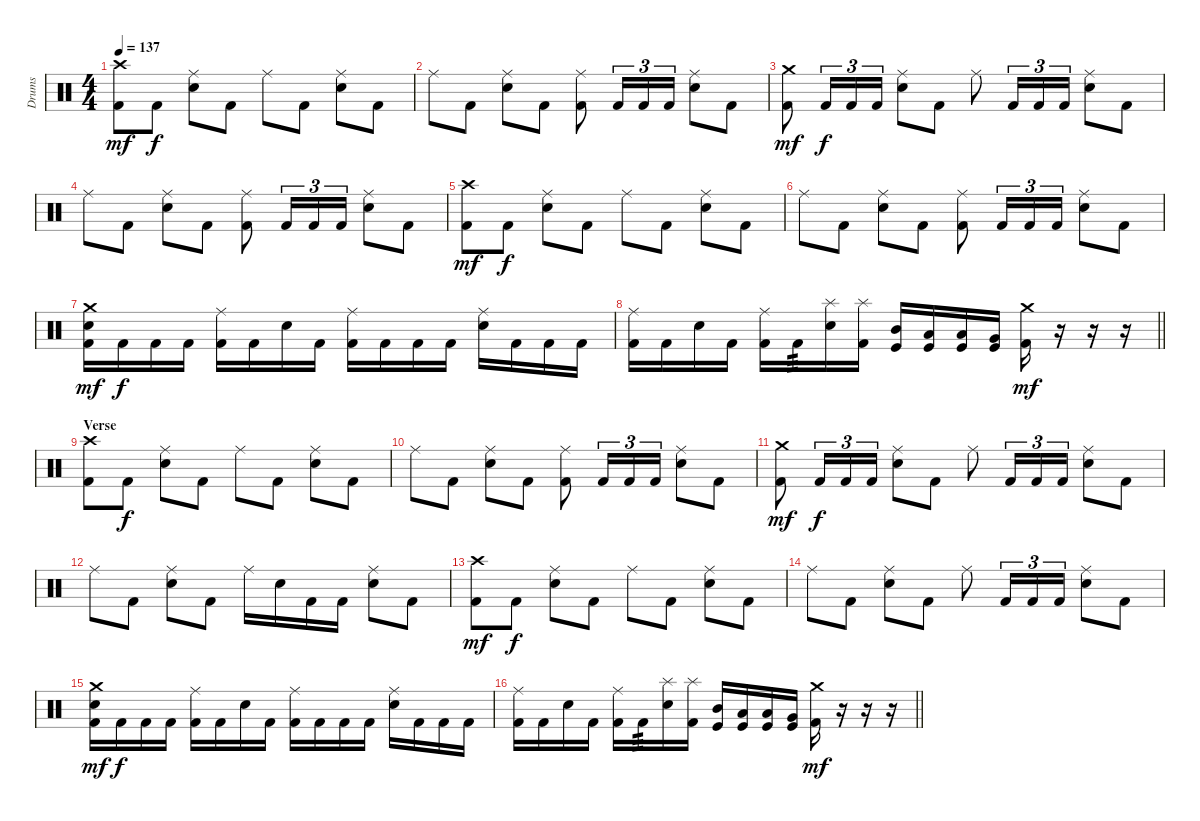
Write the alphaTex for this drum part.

\track ("Drums" "Drums") {instrument percussion}
\staff {score}
\articulation defaults
\ts (4 4)
\tempo 137
\clef neutral
\ks c
("Crash high (hit)" "Kick (hit) 2").8{dy mf} "Kick (hit) 2".8{dy f} ("Ride (middle)" "Electric Snare (hit)").8 "Kick (hit) 2".8 "Ride (middle)".8 "Kick (hit) 2".8 ("Ride (middle)" "Electric Snare (hit)").8 "Kick (hit) 2".8 |
"Ride (middle)".8 "Kick (hit) 2".8 ("Ride (middle)" "Electric Snare (hit)").8 "Kick (hit) 2".8 ("Ride (middle)" "Kick (hit) 2").8 "Kick (hit) 2".16{tu (3 2)} "Kick (hit) 2".16{tu (3 2)} "Kick (hit) 2".16{tu (3 2)} ("Ride (middle)" "Electric Snare (hit)").8 "Kick (hit) 2".8 |
("Crash medium (hit)" "Kick (hit) 2").8{dy mf} "Kick (hit) 2".16{tu (3 2) dy f} "Kick (hit) 2".16{tu (3 2)} "Kick (hit) 2".16{tu (3 2)} ("Ride (middle)" "Electric Snare (hit)").8 "Kick (hit) 2".8 "Ride (middle)".8 "Kick (hit) 2".16{tu (3 2)} "Kick (hit) 2".16{tu (3 2)} "Kick (hit) 2".16{tu (3 2)} ("Ride (middle)" "Electric Snare (hit)").8 "Kick (hit) 2".8 |
"Ride (middle)".8 "Kick (hit) 2".8 ("Ride (middle)" "Electric Snare (hit)").8 "Kick (hit) 2".8 ("Ride (middle)" "Kick (hit) 2").8 "Kick (hit) 2".16{tu (3 2)} "Kick (hit) 2".16{tu (3 2)} "Kick (hit) 2".16{tu (3 2)} ("Ride (middle)" "Electric Snare (hit)").8 "Kick (hit) 2".8 |
("Crash high (hit)" "Kick (hit) 2").8{dy mf} "Kick (hit) 2".8{dy f} ("Ride (middle)" "Electric Snare (hit)").8 "Kick (hit) 2".8 "Ride (middle)".8 "Kick (hit) 2".8 ("Ride (middle)" "Electric Snare (hit)").8 "Kick (hit) 2".8 |
"Ride (middle)".8 "Kick (hit) 2".8 ("Ride (middle)" "Electric Snare (hit)").8 "Kick (hit) 2".8 ("Ride (middle)" "Kick (hit) 2").8 "Kick (hit) 2".16{tu (3 2)} "Kick (hit) 2".16{tu (3 2)} "Kick (hit) 2".16{tu (3 2)} ("Ride (middle)" "Electric Snare (hit)").8 "Kick (hit) 2".8 |
("Crash medium (hit)" "Electric Snare (hit)" "Kick (hit) 2").16{dy mf} "Kick (hit) 2".16{dy f} "Kick (hit) 2".16 "Kick (hit) 2".16 ("Ride (middle)" "Kick (hit) 2").16 "Kick (hit) 2".16 "Electric Snare (hit)".16 "Kick (hit) 2".16 ("Ride (middle)" "Kick (hit) 2").16 "Kick (hit) 2".16 "Kick (hit) 2".16 "Kick (hit) 2".16 ("Ride (middle)" "Electric Snare (hit)").16 "Kick (hit) 2".16 "Kick (hit) 2".16 "Kick (hit) 2".16 |
\barLineRight lightlight
("Ride (middle)" "Kick (hit) 2").16 "Kick (hit) 2".16 "Electric Snare (hit)".16 "Kick (hit) 2".16 ("Ride (middle)" "Kick (hit) 2").16 "Kick (hit) 2".16{tp 3} ("Splash (hit)" "Electric Snare (hit)").16 ("Splash (hit)" "Kick (hit) 2").16 ("Mid Tom (hit)" "Kick (hit)").16 ("Low Tom (hit)" "Kick (hit)").16 ("Low Tom (hit)" "Kick (hit)").16 ("Very Low Tom (hit)" "Kick (hit)").16 ("Crash medium (hit)" "Kick (hit) 2").16{dy mf} r.16 r.16 r.16 |
\section ("" "Verse")
("Crash high (hit)" "Kick (hit) 2").8 "Kick (hit) 2".8{dy f} ("Ride (middle)" "Electric Snare (hit)").8 "Kick (hit) 2".8 "Ride (middle)".8 "Kick (hit) 2".8 ("Ride (middle)" "Electric Snare (hit)").8 "Kick (hit) 2".8 |
"Ride (middle)".8 "Kick (hit) 2".8 ("Ride (middle)" "Electric Snare (hit)").8 "Kick (hit) 2".8 ("Ride (middle)" "Kick (hit) 2").8 "Kick (hit) 2".16{tu (3 2)} "Kick (hit) 2".16{tu (3 2)} "Kick (hit) 2".16{tu (3 2)} ("Ride (middle)" "Electric Snare (hit)").8 "Kick (hit) 2".8 |
("Crash medium (hit)" "Kick (hit) 2").8{dy mf} "Kick (hit) 2".16{tu (3 2) dy f} "Kick (hit) 2".16{tu (3 2)} "Kick (hit) 2".16{tu (3 2)} ("Ride (middle)" "Electric Snare (hit)").8 "Kick (hit) 2".8 "Ride (middle)".8 "Kick (hit) 2".16{tu (3 2)} "Kick (hit) 2".16{tu (3 2)} "Kick (hit) 2".16{tu (3 2)} ("Ride (middle)" "Electric Snare (hit)").8 "Kick (hit) 2".8 |
"Ride (middle)".8 "Kick (hit) 2".8 ("Ride (middle)" "Electric Snare (hit)").8 "Kick (hit) 2".8 "Ride (middle)".16 "Electric Snare (hit)".16 "Kick (hit) 2".16 "Kick (hit) 2".16 ("Ride (middle)" "Electric Snare (hit)").8 "Kick (hit) 2".8 |
("Crash high (hit)" "Kick (hit) 2").8{dy mf} "Kick (hit) 2".8{dy f} ("Ride (middle)" "Electric Snare (hit)").8 "Kick (hit) 2".8 "Ride (middle)".8 "Kick (hit) 2".8 ("Ride (middle)" "Electric Snare (hit)").8 "Kick (hit) 2".8 |
"Ride (middle)".8 "Kick (hit) 2".8 ("Ride (middle)" "Electric Snare (hit)").8 "Kick (hit) 2".8 "Ride (middle)".8 "Kick (hit) 2".16{tu (3 2)} "Kick (hit) 2".16{tu (3 2)} "Kick (hit) 2".16{tu (3 2)} ("Ride (middle)" "Electric Snare (hit)").8 "Kick (hit) 2".8 |
("Crash medium (hit)" "Electric Snare (hit)" "Kick (hit) 2").16{dy mf} "Kick (hit) 2".16{dy f} "Kick (hit) 2".16 "Kick (hit) 2".16 ("Ride (middle)" "Kick (hit) 2").16 "Kick (hit) 2".16 "Electric Snare (hit)".16 "Kick (hit) 2".16 ("Ride (middle)" "Kick (hit) 2").16 "Kick (hit) 2".16 "Kick (hit) 2".16 "Kick (hit) 2".16 ("Ride (middle)" "Electric Snare (hit)").16 "Kick (hit) 2".16 "Kick (hit) 2".16 "Kick (hit) 2".16 |
\barLineRight lightlight
("Ride (middle)" "Kick (hit) 2").16 "Kick (hit) 2".16 "Electric Snare (hit)".16 "Kick (hit) 2".16 ("Ride (middle)" "Kick (hit) 2").16 "Kick (hit) 2".16{tp 3} ("Splash (hit)" "Electric Snare (hit)").16 ("Splash (hit)" "Kick (hit) 2").16 ("Mid Tom (hit)" "Kick (hit)").16 ("Low Tom (hit)" "Kick (hit)").16 ("Low Tom (hit)" "Kick (hit)").16 ("Very Low Tom (hit)" "Kick (hit)").16 ("Crash medium (hit)" "Kick (hit) 2").16{dy mf} r.16 r.16 r.16
